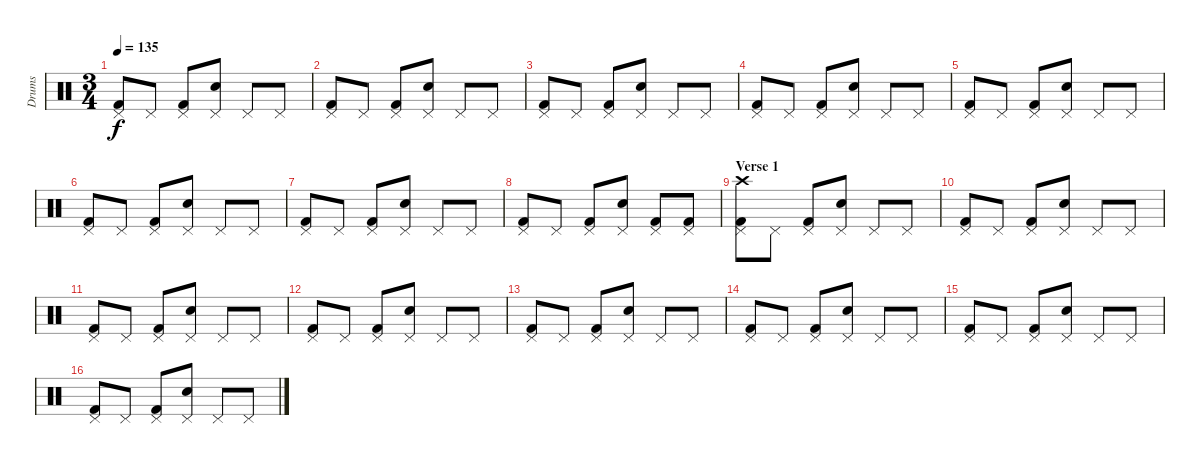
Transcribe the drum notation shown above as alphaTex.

\track ("Drums" "Drums") {instrument percussion}
\staff {score}
\articulation defaults
\ts (3 4)
\tempo 135
\clef neutral
\ks c
("Pedal Hi-Hat (hit)" "Kick (hit) 2").8{dy f} "Pedal Hi-Hat (hit)".8 ("Pedal Hi-Hat (hit)" "Kick (hit) 2").8 ("Pedal Hi-Hat (hit)" "Snare (hit) 2").8 "Pedal Hi-Hat (hit)".8 "Pedal Hi-Hat (hit)".8 |
("Pedal Hi-Hat (hit)" "Kick (hit) 2").8 "Pedal Hi-Hat (hit)".8 ("Pedal Hi-Hat (hit)" "Kick (hit) 2").8 ("Pedal Hi-Hat (hit)" "Snare (hit) 2").8 "Pedal Hi-Hat (hit)".8 "Pedal Hi-Hat (hit)".8 |
("Pedal Hi-Hat (hit)" "Kick (hit) 2").8 "Pedal Hi-Hat (hit)".8 ("Pedal Hi-Hat (hit)" "Kick (hit) 2").8 ("Pedal Hi-Hat (hit)" "Snare (hit) 2").8 "Pedal Hi-Hat (hit)".8 "Pedal Hi-Hat (hit)".8 |
("Pedal Hi-Hat (hit)" "Kick (hit) 2").8 "Pedal Hi-Hat (hit)".8 ("Pedal Hi-Hat (hit)" "Kick (hit) 2").8 ("Pedal Hi-Hat (hit)" "Snare (hit) 2").8 "Pedal Hi-Hat (hit)".8 "Pedal Hi-Hat (hit)".8 |
("Pedal Hi-Hat (hit)" "Kick (hit) 2").8 "Pedal Hi-Hat (hit)".8 ("Pedal Hi-Hat (hit)" "Kick (hit) 2").8 ("Pedal Hi-Hat (hit)" "Snare (hit) 2").8 "Pedal Hi-Hat (hit)".8 "Pedal Hi-Hat (hit)".8 |
("Pedal Hi-Hat (hit)" "Kick (hit) 2").8 "Pedal Hi-Hat (hit)".8 ("Pedal Hi-Hat (hit)" "Kick (hit) 2").8 ("Pedal Hi-Hat (hit)" "Snare (hit) 2").8 "Pedal Hi-Hat (hit)".8 "Pedal Hi-Hat (hit)".8 |
("Pedal Hi-Hat (hit)" "Kick (hit) 2").8 "Pedal Hi-Hat (hit)".8 ("Pedal Hi-Hat (hit)" "Kick (hit) 2").8 ("Pedal Hi-Hat (hit)" "Snare (hit) 2").8 "Pedal Hi-Hat (hit)".8 "Pedal Hi-Hat (hit)".8 |
("Pedal Hi-Hat (hit)" "Kick (hit) 2").8 "Pedal Hi-Hat (hit)".8 ("Pedal Hi-Hat (hit)" "Kick (hit) 2").8 ("Pedal Hi-Hat (hit)" "Snare (hit) 2").8 ("Pedal Hi-Hat (hit)" "Kick (hit) 2").8 ("Pedal Hi-Hat (hit)" "Kick (hit) 2").8 |
\section ("" "Verse 1")
("Pedal Hi-Hat (hit)" "Kick (hit) 2" "Crash high (hit)").8 "Pedal Hi-Hat (hit)".8 ("Pedal Hi-Hat (hit)" "Kick (hit) 2").8 ("Pedal Hi-Hat (hit)" "Snare (hit) 2").8 "Pedal Hi-Hat (hit)".8 "Pedal Hi-Hat (hit)".8 |
("Pedal Hi-Hat (hit)" "Kick (hit) 2").8 "Pedal Hi-Hat (hit)".8 ("Pedal Hi-Hat (hit)" "Kick (hit) 2").8 ("Pedal Hi-Hat (hit)" "Snare (hit) 2").8 "Pedal Hi-Hat (hit)".8 "Pedal Hi-Hat (hit)".8 |
("Pedal Hi-Hat (hit)" "Kick (hit) 2").8 "Pedal Hi-Hat (hit)".8 ("Pedal Hi-Hat (hit)" "Kick (hit) 2").8 ("Pedal Hi-Hat (hit)" "Snare (hit) 2").8 "Pedal Hi-Hat (hit)".8 "Pedal Hi-Hat (hit)".8 |
("Pedal Hi-Hat (hit)" "Kick (hit) 2").8 "Pedal Hi-Hat (hit)".8 ("Pedal Hi-Hat (hit)" "Kick (hit) 2").8 ("Pedal Hi-Hat (hit)" "Snare (hit) 2").8 "Pedal Hi-Hat (hit)".8 "Pedal Hi-Hat (hit)".8 |
("Pedal Hi-Hat (hit)" "Kick (hit) 2").8 "Pedal Hi-Hat (hit)".8 ("Pedal Hi-Hat (hit)" "Kick (hit) 2").8 ("Pedal Hi-Hat (hit)" "Snare (hit) 2").8 "Pedal Hi-Hat (hit)".8 "Pedal Hi-Hat (hit)".8 |
("Pedal Hi-Hat (hit)" "Kick (hit) 2").8 "Pedal Hi-Hat (hit)".8 ("Pedal Hi-Hat (hit)" "Kick (hit) 2").8 ("Pedal Hi-Hat (hit)" "Snare (hit) 2").8 "Pedal Hi-Hat (hit)".8 "Pedal Hi-Hat (hit)".8 |
("Pedal Hi-Hat (hit)" "Kick (hit) 2").8 "Pedal Hi-Hat (hit)".8 ("Pedal Hi-Hat (hit)" "Kick (hit) 2").8 ("Pedal Hi-Hat (hit)" "Snare (hit) 2").8 "Pedal Hi-Hat (hit)".8 "Pedal Hi-Hat (hit)".8 |
("Pedal Hi-Hat (hit)" "Kick (hit) 2").8 "Pedal Hi-Hat (hit)".8 ("Pedal Hi-Hat (hit)" "Kick (hit) 2").8 ("Pedal Hi-Hat (hit)" "Snare (hit) 2").8 "Pedal Hi-Hat (hit)".8 "Pedal Hi-Hat (hit)".8
